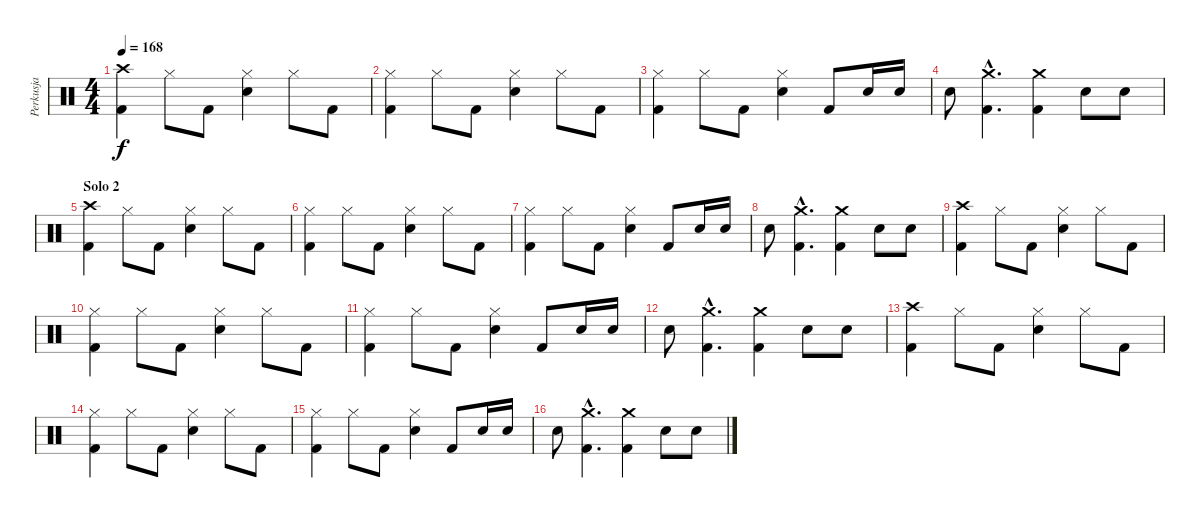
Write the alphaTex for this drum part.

\track ("Perkusja" "Perkusja") {instrument percussion}
\staff {score}
\articulation defaults
\ts (4 4)
\tempo 168
\clef neutral
\ks c
("Crash high (hit)" "Kick (hit) 2").4{dy f} "Hi-Hat (closed)".8 "Kick (hit) 2".8 ("Hi-Hat (closed)" "Snare (hit) 2").4 "Hi-Hat (closed)".8 "Kick (hit) 2".8 |
("Hi-Hat (closed)" "Kick (hit) 2").4 "Hi-Hat (closed)".8 "Kick (hit) 2".8 ("Hi-Hat (closed)" "Snare (hit) 2").4 "Hi-Hat (closed)".8 "Kick (hit) 2".8 |
("Hi-Hat (closed)" "Kick (hit) 2").4 "Hi-Hat (closed)".8 "Kick (hit) 2".8 ("Hi-Hat (closed)" "Snare (hit) 2").4 "Kick (hit) 2".8 "Snare (hit) 2".16 "Snare (hit) 2".16 |
"Snare (hit) 2".8 ("Crash medium (hit)"{hac} "Kick (hit) 2"{hac}).4{d} ("Crash medium (hit)" "Kick (hit) 2").4 "Snare (hit) 2".8 "Snare (hit) 2".8 |
\section ("" "Solo 2")
("Crash high (hit)" "Kick (hit) 2").4 "Hi-Hat (closed)".8 "Kick (hit) 2".8 ("Hi-Hat (closed)" "Snare (hit) 2").4 "Hi-Hat (closed)".8 "Kick (hit) 2".8 |
("Hi-Hat (closed)" "Kick (hit) 2").4 "Hi-Hat (closed)".8 "Kick (hit) 2".8 ("Hi-Hat (closed)" "Snare (hit) 2").4 "Hi-Hat (closed)".8 "Kick (hit) 2".8 |
("Hi-Hat (closed)" "Kick (hit) 2").4 "Hi-Hat (closed)".8 "Kick (hit) 2".8 ("Hi-Hat (closed)" "Snare (hit) 2").4 "Kick (hit) 2".8 "Snare (hit) 2".16 "Snare (hit) 2".16 |
"Snare (hit) 2".8 ("Crash medium (hit)"{hac} "Kick (hit) 2"{hac}).4{d} ("Crash medium (hit)" "Kick (hit) 2").4 "Snare (hit) 2".8 "Snare (hit) 2".8 |
("Crash high (hit)" "Kick (hit) 2").4 "Hi-Hat (closed)".8 "Kick (hit) 2".8 ("Hi-Hat (closed)" "Snare (hit) 2").4 "Hi-Hat (closed)".8 "Kick (hit) 2".8 |
("Hi-Hat (closed)" "Kick (hit) 2").4 "Hi-Hat (closed)".8 "Kick (hit) 2".8 ("Hi-Hat (closed)" "Snare (hit) 2").4 "Hi-Hat (closed)".8 "Kick (hit) 2".8 |
("Hi-Hat (closed)" "Kick (hit) 2").4 "Hi-Hat (closed)".8 "Kick (hit) 2".8 ("Hi-Hat (closed)" "Snare (hit) 2").4 "Kick (hit) 2".8 "Snare (hit) 2".16 "Snare (hit) 2".16 |
"Snare (hit) 2".8 ("Crash medium (hit)"{hac} "Kick (hit) 2"{hac}).4{d} ("Crash medium (hit)" "Kick (hit) 2").4 "Snare (hit) 2".8 "Snare (hit) 2".8 |
("Crash high (hit)" "Kick (hit) 2").4 "Hi-Hat (closed)".8 "Kick (hit) 2".8 ("Hi-Hat (closed)" "Snare (hit) 2").4 "Hi-Hat (closed)".8 "Kick (hit) 2".8 |
("Hi-Hat (closed)" "Kick (hit) 2").4 "Hi-Hat (closed)".8 "Kick (hit) 2".8 ("Hi-Hat (closed)" "Snare (hit) 2").4 "Hi-Hat (closed)".8 "Kick (hit) 2".8 |
("Hi-Hat (closed)" "Kick (hit) 2").4 "Hi-Hat (closed)".8 "Kick (hit) 2".8 ("Hi-Hat (closed)" "Snare (hit) 2").4 "Kick (hit) 2".8 "Snare (hit) 2".16 "Snare (hit) 2".16 |
"Snare (hit) 2".8 ("Crash medium (hit)"{hac} "Kick (hit) 2"{hac}).4{d} ("Crash medium (hit)" "Kick (hit) 2").4 "Snare (hit) 2".8 "Snare (hit) 2".8
